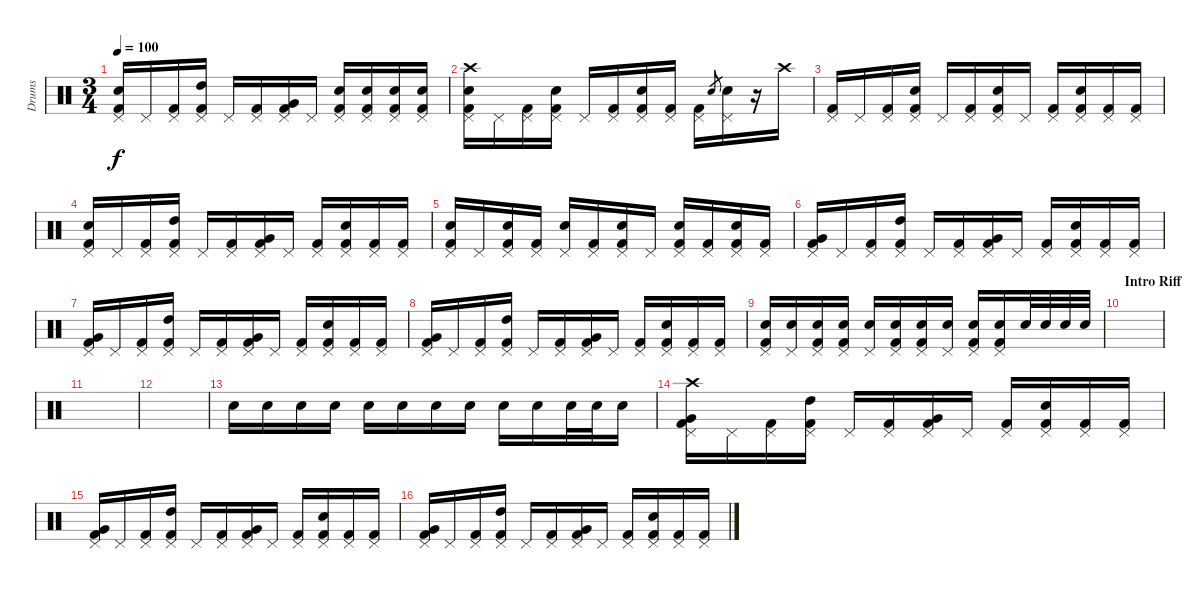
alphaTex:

\track ("Drums" "Drums") {instrument percussion}
\staff {score}
\articulation defaults
\ts (3 4)
\tempo 100
\clef neutral
\ks c
("Snare (hit) 2" "Pedal Hi-Hat (hit)" "Kick (hit) 2").16{dy f} "Pedal Hi-Hat (hit)".16 ("Pedal Hi-Hat (hit)" "Kick (hit) 2").16 ("High Tom (hit)" "Pedal Hi-Hat (hit)" "Kick (hit) 2").16 "Pedal Hi-Hat (hit)".16 ("Pedal Hi-Hat (hit)" "Kick (hit) 2").16 ("Very Low Tom (hit)" "Pedal Hi-Hat (hit)" "Kick (hit) 2").16 "Pedal Hi-Hat (hit)".16 ("Snare (hit) 2" "Pedal Hi-Hat (hit)" "Kick (hit) 2").16 ("Snare (hit) 2" "Pedal Hi-Hat (hit)" "Kick (hit) 2").16 ("Snare (hit) 2" "Pedal Hi-Hat (hit)" "Kick (hit) 2").16 ("Snare (hit) 2" "Pedal Hi-Hat (hit)" "Kick (hit) 2").16 |
("Crash high (hit)" "Snare (hit) 2" "Pedal Hi-Hat (hit)" "Kick (hit) 2").16 "Pedal Hi-Hat (hit)".16 ("Pedal Hi-Hat (hit)" "Kick (hit) 2").16 ("Snare (hit) 2" "Pedal Hi-Hat (hit)" "Kick (hit) 2").16 "Pedal Hi-Hat (hit)".16 ("Pedal Hi-Hat (hit)" "Kick (hit) 2").16 ("Snare (hit) 2" "Pedal Hi-Hat (hit)" "Kick (hit) 2").16 ("Pedal Hi-Hat (hit)" "Kick (hit) 2").16 ("Pedal Hi-Hat (hit)" "Kick (hit) 2").16 "Electric Snare (hit)".8{gr} ("Electric Snare (hit)" "Pedal Hi-Hat (hit)").16 r.16 "Crash high (hit)".16 |
("Pedal Hi-Hat (hit)" "Kick (hit) 2").16 "Pedal Hi-Hat (hit)".16 ("Pedal Hi-Hat (hit)" "Kick (hit) 2").16 ("Snare (hit) 2" "Pedal Hi-Hat (hit)" "Kick (hit) 2").16 "Pedal Hi-Hat (hit)".16 ("Pedal Hi-Hat (hit)" "Kick (hit) 2").16 ("Snare (hit) 2" "Pedal Hi-Hat (hit)" "Kick (hit) 2").16 "Pedal Hi-Hat (hit)".16 ("Pedal Hi-Hat (hit)" "Kick (hit) 2").16 ("Snare (hit) 2" "Pedal Hi-Hat (hit)" "Kick (hit) 2").16 ("Pedal Hi-Hat (hit)" "Kick (hit) 2").16 ("Pedal Hi-Hat (hit)" "Kick (hit) 2").16 |
("Snare (hit) 2" "Pedal Hi-Hat (hit)" "Kick (hit) 2").16 "Pedal Hi-Hat (hit)".16 ("Pedal Hi-Hat (hit)" "Kick (hit) 2").16 ("High Tom (hit)" "Pedal Hi-Hat (hit)" "Kick (hit) 2").16 "Pedal Hi-Hat (hit)".16 ("Pedal Hi-Hat (hit)" "Kick (hit) 2").16 ("Very Low Tom (hit)" "Pedal Hi-Hat (hit)" "Kick (hit) 2").16 "Pedal Hi-Hat (hit)".16 ("Pedal Hi-Hat (hit)" "Kick (hit) 2").16 ("Snare (hit) 2" "Pedal Hi-Hat (hit)" "Kick (hit) 2").16 ("Pedal Hi-Hat (hit)" "Kick (hit) 2").16 ("Pedal Hi-Hat (hit)" "Kick (hit) 2").16 |
("Snare (hit) 2" "Pedal Hi-Hat (hit)" "Kick (hit) 2").16 "Pedal Hi-Hat (hit)".16 ("Snare (hit) 2" "Pedal Hi-Hat (hit)" "Kick (hit) 2").16 ("Pedal Hi-Hat (hit)" "Kick (hit) 2").16 ("Snare (hit) 2" "Pedal Hi-Hat (hit)").16 ("Pedal Hi-Hat (hit)" "Kick (hit) 2").16 ("Snare (hit) 2" "Pedal Hi-Hat (hit)" "Kick (hit) 2").16 "Pedal Hi-Hat (hit)".16 ("Snare (hit) 2" "Pedal Hi-Hat (hit)" "Kick (hit) 2").16 ("Pedal Hi-Hat (hit)" "Kick (hit) 2").16 ("Snare (hit) 2" "Pedal Hi-Hat (hit)" "Kick (hit) 2").16 ("Pedal Hi-Hat (hit)" "Kick (hit) 2").16 |
("Very Low Tom (hit)" "Pedal Hi-Hat (hit)" "Kick (hit) 2").16 "Pedal Hi-Hat (hit)".16 ("Pedal Hi-Hat (hit)" "Kick (hit) 2").16 ("High Tom (hit)" "Pedal Hi-Hat (hit)" "Kick (hit) 2").16 "Pedal Hi-Hat (hit)".16 ("Pedal Hi-Hat (hit)" "Kick (hit) 2").16 ("Very Low Tom (hit)" "Pedal Hi-Hat (hit)" "Kick (hit) 2").16 "Pedal Hi-Hat (hit)".16 ("Pedal Hi-Hat (hit)" "Kick (hit) 2").16 ("Snare (hit) 2" "Pedal Hi-Hat (hit)" "Kick (hit) 2").16 ("Pedal Hi-Hat (hit)" "Kick (hit) 2").16 ("Pedal Hi-Hat (hit)" "Kick (hit) 2").16 |
("Very Low Tom (hit)" "Pedal Hi-Hat (hit)" "Kick (hit) 2").16 "Pedal Hi-Hat (hit)".16 ("Pedal Hi-Hat (hit)" "Kick (hit) 2").16 ("High Tom (hit)" "Pedal Hi-Hat (hit)" "Kick (hit) 2").16 "Pedal Hi-Hat (hit)".16 ("Pedal Hi-Hat (hit)" "Kick (hit) 2").16 ("Very Low Tom (hit)" "Pedal Hi-Hat (hit)" "Kick (hit) 2").16 "Pedal Hi-Hat (hit)".16 ("Pedal Hi-Hat (hit)" "Kick (hit) 2").16 ("Snare (hit) 2" "Pedal Hi-Hat (hit)" "Kick (hit) 2").16 ("Pedal Hi-Hat (hit)" "Kick (hit) 2").16 ("Pedal Hi-Hat (hit)" "Kick (hit) 2").16 |
("Very Low Tom (hit)" "Pedal Hi-Hat (hit)" "Kick (hit) 2").16 "Pedal Hi-Hat (hit)".16 ("Pedal Hi-Hat (hit)" "Kick (hit) 2").16 ("High Tom (hit)" "Pedal Hi-Hat (hit)" "Kick (hit) 2").16 "Pedal Hi-Hat (hit)".16 ("Pedal Hi-Hat (hit)" "Kick (hit) 2").16 ("Very Low Tom (hit)" "Pedal Hi-Hat (hit)" "Kick (hit) 2").16 "Pedal Hi-Hat (hit)".16 ("Pedal Hi-Hat (hit)" "Kick (hit) 2").16 ("Snare (hit) 2" "Pedal Hi-Hat (hit)" "Kick (hit) 2").16 ("Pedal Hi-Hat (hit)" "Kick (hit) 2").16 ("Pedal Hi-Hat (hit)" "Kick (hit) 2").16 |
("Snare (hit) 2" "Pedal Hi-Hat (hit)" "Kick (hit) 2").16 ("Electric Snare (hit)" "Pedal Hi-Hat (hit)").16 ("Electric Snare (hit)" "Pedal Hi-Hat (hit)" "Kick (hit) 2").16 ("Snare (hit) 2" "Pedal Hi-Hat (hit)" "Kick (hit) 2").16 ("Electric Snare (hit)" "Pedal Hi-Hat (hit)").16 ("Electric Snare (hit)" "Pedal Hi-Hat (hit)" "Kick (hit) 2").16 ("Snare (hit) 2" "Pedal Hi-Hat (hit)" "Kick (hit) 2").16 ("Electric Snare (hit)" "Pedal Hi-Hat (hit)").16 ("Electric Snare (hit)" "Pedal Hi-Hat (hit)" "Kick (hit) 2").16 ("Snare (hit) 2" "Pedal Hi-Hat (hit)" "Kick (hit) 2").16 "Electric Snare (hit)".32 "Electric Snare (hit)".32 "Electric Snare (hit)".32 "Electric Snare (hit)".32 |
\section ("" "Intro Riff")
|
|
|
"Snare (hit) 2".16 "Electric Snare (hit)".16 "Electric Snare (hit)".16 "Snare (hit) 2".16 "Electric Snare (hit)".16 "Electric Snare (hit)".16 "Snare (hit) 2".16 "Electric Snare (hit)".16 "Electric Snare (hit)".16 "Snare (hit) 2".16 "Electric Snare (hit)".32 "Electric Snare (hit)".32 "Electric Snare (hit)".16 |
("Crash high (hit)" "Very Low Tom (hit)" "Pedal Hi-Hat (hit)" "Kick (hit) 2").16 "Pedal Hi-Hat (hit)".16 ("Pedal Hi-Hat (hit)" "Kick (hit) 2").16 ("High Tom (hit)" "Pedal Hi-Hat (hit)" "Kick (hit) 2").16 "Pedal Hi-Hat (hit)".16 ("Pedal Hi-Hat (hit)" "Kick (hit) 2").16 ("Very Low Tom (hit)" "Pedal Hi-Hat (hit)" "Kick (hit) 2").16 "Pedal Hi-Hat (hit)".16 ("Pedal Hi-Hat (hit)" "Kick (hit) 2").16 ("Snare (hit) 2" "Pedal Hi-Hat (hit)" "Kick (hit) 2").16 ("Pedal Hi-Hat (hit)" "Kick (hit) 2").16 ("Pedal Hi-Hat (hit)" "Kick (hit) 2").16 |
("Very Low Tom (hit)" "Pedal Hi-Hat (hit)" "Kick (hit) 2").16 "Pedal Hi-Hat (hit)".16 ("Pedal Hi-Hat (hit)" "Kick (hit) 2").16 ("High Tom (hit)" "Pedal Hi-Hat (hit)" "Kick (hit) 2").16 "Pedal Hi-Hat (hit)".16 ("Pedal Hi-Hat (hit)" "Kick (hit) 2").16 ("Very Low Tom (hit)" "Pedal Hi-Hat (hit)" "Kick (hit) 2").16 "Pedal Hi-Hat (hit)".16 ("Pedal Hi-Hat (hit)" "Kick (hit) 2").16 ("Snare (hit) 2" "Pedal Hi-Hat (hit)" "Kick (hit) 2").16 ("Pedal Hi-Hat (hit)" "Kick (hit) 2").16 ("Pedal Hi-Hat (hit)" "Kick (hit) 2").16 |
("Very Low Tom (hit)" "Pedal Hi-Hat (hit)" "Kick (hit) 2").16 "Pedal Hi-Hat (hit)".16 ("Pedal Hi-Hat (hit)" "Kick (hit) 2").16 ("High Tom (hit)" "Pedal Hi-Hat (hit)" "Kick (hit) 2").16 "Pedal Hi-Hat (hit)".16 ("Pedal Hi-Hat (hit)" "Kick (hit) 2").16 ("Very Low Tom (hit)" "Pedal Hi-Hat (hit)" "Kick (hit) 2").16 "Pedal Hi-Hat (hit)".16 ("Pedal Hi-Hat (hit)" "Kick (hit) 2").16 ("Snare (hit) 2" "Pedal Hi-Hat (hit)" "Kick (hit) 2").16 ("Pedal Hi-Hat (hit)" "Kick (hit) 2").16 ("Pedal Hi-Hat (hit)" "Kick (hit) 2").16
